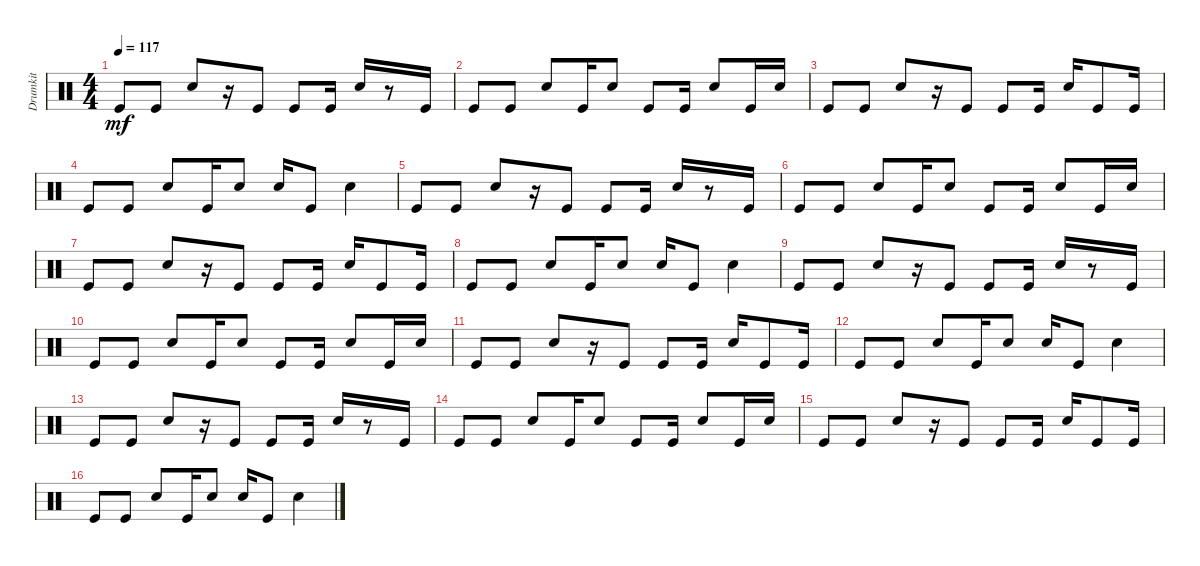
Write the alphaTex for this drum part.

\track ("Drumkit" "Drumkit") {instrument percussion}
\staff {score}
\articulation defaults
\ts (4 4)
\tempo 117
\clef neutral
\ks c "Kick (hit)".8{dy mf} "Kick (hit)".8 "Snare (hit) 2".8
r.16 "Kick (hit)".8 "Kick (hit)".8 "Kick (hit)".16 "Snare (hit) 2".16 r.8 "Kick (hit)".16 |
"Kick (hit)".8 "Kick (hit)".8 "Snare (hit) 2".8 "Kick (hit)".16 "Snare (hit) 2".8 "Kick (hit)".8 "Kick (hit)".16 "Snare (hit) 2".8 "Kick (hit)".16 "Snare (hit) 2".16 |
"Kick (hit)".8 "Kick (hit)".8 "Snare (hit) 2".8 r.16 "Kick (hit)".8 "Kick (hit)".8 "Kick (hit)".16 "Snare (hit) 2".16 "Kick (hit)".8 "Kick (hit)".16 |
"Kick (hit)".8 "Kick (hit)".8 "Snare (hit) 2".8 "Kick (hit)".16 "Snare (hit) 2".8 "Snare (hit) 2".16 "Kick (hit)".8 "Snare (hit) 2".4 |
"Kick (hit)".8 "Kick (hit)".8 "Snare (hit) 2".8 r.16 "Kick (hit)".8 "Kick (hit)".8 "Kick (hit)".16 "Snare (hit) 2".16 r.8 "Kick (hit)".16 |
"Kick (hit)".8 "Kick (hit)".8 "Snare (hit) 2".8 "Kick (hit)".16 "Snare (hit) 2".8 "Kick (hit)".8 "Kick (hit)".16 "Snare (hit) 2".8 "Kick (hit)".16 "Snare (hit) 2".16 |
"Kick (hit)".8 "Kick (hit)".8 "Snare (hit) 2".8 r.16 "Kick (hit)".8 "Kick (hit)".8 "Kick (hit)".16 "Snare (hit) 2".16 "Kick (hit)".8 "Kick (hit)".16 |
"Kick (hit)".8 "Kick (hit)".8 "Snare (hit) 2".8 "Kick (hit)".16 "Snare (hit) 2".8 "Snare (hit) 2".16 "Kick (hit)".8 "Snare (hit) 2".4 |
"Kick (hit)".8 "Kick (hit)".8 "Snare (hit) 2".8 r.16 "Kick (hit)".8 "Kick (hit)".8 "Kick (hit)".16 "Snare (hit) 2".16 r.8 "Kick (hit)".16 |
"Kick (hit)".8 "Kick (hit)".8 "Snare (hit) 2".8 "Kick (hit)".16 "Snare (hit) 2".8 "Kick (hit)".8 "Kick (hit)".16 "Snare (hit) 2".8 "Kick (hit)".16 "Snare (hit) 2".16 |
"Kick (hit)".8 "Kick (hit)".8 "Snare (hit) 2".8 r.16 "Kick (hit)".8 "Kick (hit)".8 "Kick (hit)".16 "Snare (hit) 2".16 "Kick (hit)".8 "Kick (hit)".16 |
"Kick (hit)".8 "Kick (hit)".8 "Snare (hit) 2".8 "Kick (hit)".16 "Snare (hit) 2".8 "Snare (hit) 2".16 "Kick (hit)".8 "Snare (hit) 2".4 |
"Kick (hit)".8 "Kick (hit)".8 "Snare (hit) 2".8 r.16 "Kick (hit)".8 "Kick (hit)".8 "Kick (hit)".16 "Snare (hit) 2".16 r.8 "Kick (hit)".16 |
"Kick (hit)".8 "Kick (hit)".8 "Snare (hit) 2".8 "Kick (hit)".16 "Snare (hit) 2".8 "Kick (hit)".8 "Kick (hit)".16 "Snare (hit) 2".8 "Kick (hit)".16 "Snare (hit) 2".16 |
"Kick (hit)".8 "Kick (hit)".8 "Snare (hit) 2".8 r.16 "Kick (hit)".8 "Kick (hit)".8 "Kick (hit)".16 "Snare (hit) 2".16 "Kick (hit)".8 "Kick (hit)".16 |
"Kick (hit)".8 "Kick (hit)".8 "Snare (hit) 2".8 "Kick (hit)".16 "Snare (hit) 2".8 "Snare (hit) 2".16 "Kick (hit)".8 "Snare (hit) 2".4
